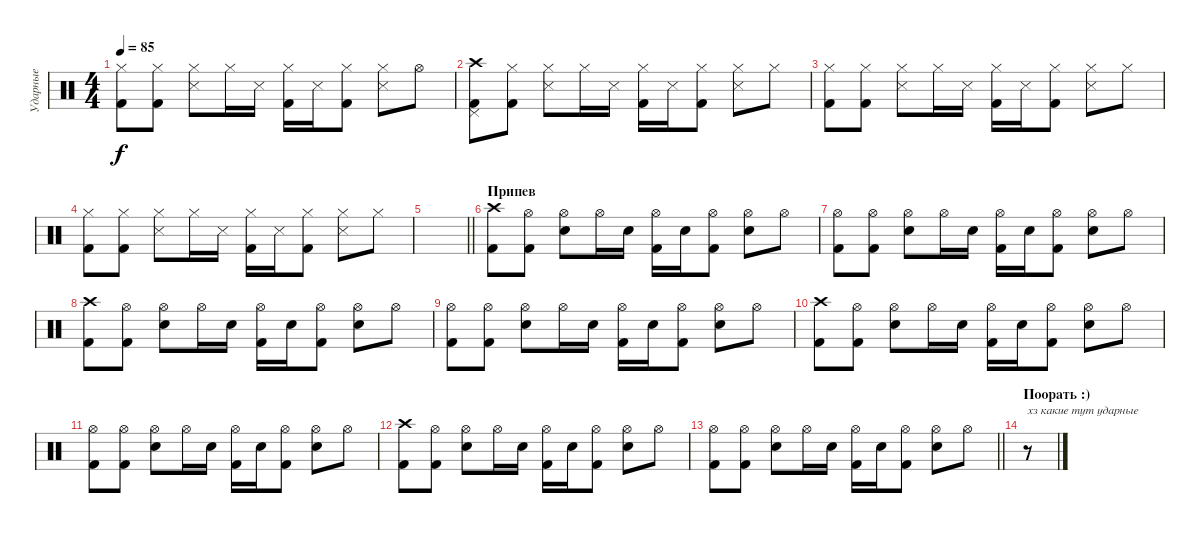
\track ("Ударные" "Ударные") {instrument percussion}
\staff {score}
\articulation defaults
\ts (4 4)
\tempo 85
\clef neutral
\ks c
("Hi-Hat (closed)" "Kick (hit) 2").8{dy f} ("Hi-Hat (closed)" "Kick (hit) 2").8 ("Hi-Hat (closed)" "Snare (side stick) 3").8 "Hi-Hat (closed)".16 "Snare (side stick) 3".16 ("Hi-Hat (closed)" "Kick (hit) 2").16 "Snare (side stick) 3".16 ("Hi-Hat (closed)" "Kick (hit) 2").8 ("Hi-Hat (closed)" "Snare (side stick) 3").8 "Hi-Hat (open)".8 |
("Crash high (hit)" "Pedal Hi-Hat (hit)" "Kick (hit) 2").8 ("Hi-Hat (closed)" "Kick (hit) 2").8 ("Hi-Hat (closed)" "Snare (side stick) 3").8 "Hi-Hat (closed)".16 "Snare (side stick) 3".16 ("Hi-Hat (closed)" "Kick (hit) 2").16 "Snare (side stick) 3".16 ("Hi-Hat (closed)" "Kick (hit) 2").8 ("Hi-Hat (closed)" "Snare (side stick) 3").8 "Hi-Hat (closed)".8 |
("Hi-Hat (closed)" "Kick (hit) 2").8 ("Hi-Hat (closed)" "Kick (hit) 2").8 ("Hi-Hat (closed)" "Snare (side stick) 3").8 "Hi-Hat (closed)".16 "Snare (side stick) 3".16 ("Hi-Hat (closed)" "Kick (hit) 2").16 "Snare (side stick) 3".16 ("Hi-Hat (closed)" "Kick (hit) 2").8 ("Hi-Hat (closed)" "Snare (side stick) 3").8 "Hi-Hat (closed)".8 |
("Hi-Hat (closed)" "Kick (hit) 2").8 ("Hi-Hat (closed)" "Kick (hit) 2").8 ("Hi-Hat (closed)" "Snare (side stick) 3").8 "Hi-Hat (closed)".16 "Snare (side stick) 3".16 ("Hi-Hat (closed)" "Kick (hit) 2").16 "Snare (side stick) 3".16 ("Hi-Hat (closed)" "Kick (hit) 2").8 ("Hi-Hat (closed)" "Snare (side stick) 3").8 "Hi-Hat (closed)".8 |
\barLineRight lightlight
|
\section ("" "Припев")
("Crash high (hit)" "Kick (hit) 2").8 ("Hi-Hat (open)" "Kick (hit) 2").8 ("Hi-Hat (open)" "Electric Snare (hit)").8 "Hi-Hat (open)".16 "Electric Snare (hit)".16 ("Hi-Hat (open)" "Kick (hit) 2").16 "Electric Snare (hit)".16 ("Hi-Hat (open)" "Kick (hit) 2").8 ("Hi-Hat (open)" "Electric Snare (hit)").8 "Hi-Hat (open)".8 |
("Hi-Hat (open)" "Kick (hit) 2").8 ("Hi-Hat (open)" "Kick (hit) 2").8 ("Hi-Hat (open)" "Electric Snare (hit)").8 "Hi-Hat (open)".16 "Electric Snare (hit)".16 ("Hi-Hat (open)" "Kick (hit) 2").16 "Electric Snare (hit)".16 ("Hi-Hat (open)" "Kick (hit) 2").8 ("Hi-Hat (open)" "Electric Snare (hit)").8 "Hi-Hat (open)".8 |
("Crash high (hit)" "Kick (hit) 2").8 ("Hi-Hat (open)" "Kick (hit) 2").8 ("Hi-Hat (open)" "Electric Snare (hit)").8 "Hi-Hat (open)".16 "Electric Snare (hit)".16 ("Hi-Hat (open)" "Kick (hit) 2").16 "Electric Snare (hit)".16 ("Hi-Hat (open)" "Kick (hit) 2").8 ("Hi-Hat (open)" "Electric Snare (hit)").8 "Hi-Hat (open)".8 |
("Hi-Hat (open)" "Kick (hit) 2").8 ("Hi-Hat (open)" "Kick (hit) 2").8 ("Hi-Hat (open)" "Electric Snare (hit)").8 "Hi-Hat (open)".16 "Electric Snare (hit)".16 ("Hi-Hat (open)" "Kick (hit) 2").16 "Electric Snare (hit)".16 ("Hi-Hat (open)" "Kick (hit) 2").8 ("Hi-Hat (open)" "Electric Snare (hit)").8 "Hi-Hat (open)".8 |
("Crash high (hit)" "Kick (hit) 2").8 ("Hi-Hat (open)" "Kick (hit) 2").8 ("Hi-Hat (open)" "Electric Snare (hit)").8 "Hi-Hat (open)".16 "Electric Snare (hit)".16 ("Hi-Hat (open)" "Kick (hit) 2").16 "Electric Snare (hit)".16 ("Hi-Hat (open)" "Kick (hit) 2").8 ("Hi-Hat (open)" "Electric Snare (hit)").8 "Hi-Hat (open)".8 |
("Hi-Hat (open)" "Kick (hit) 2").8 ("Hi-Hat (open)" "Kick (hit) 2").8 ("Hi-Hat (open)" "Electric Snare (hit)").8 "Hi-Hat (open)".16 "Electric Snare (hit)".16 ("Hi-Hat (open)" "Kick (hit) 2").16 "Electric Snare (hit)".16 ("Hi-Hat (open)" "Kick (hit) 2").8 ("Hi-Hat (open)" "Electric Snare (hit)").8 "Hi-Hat (open)".8 |
("Crash high (hit)" "Kick (hit) 2").8 ("Hi-Hat (open)" "Kick (hit) 2").8 ("Hi-Hat (open)" "Electric Snare (hit)").8 "Hi-Hat (open)".16 "Electric Snare (hit)".16 ("Hi-Hat (open)" "Kick (hit) 2").16 "Electric Snare (hit)".16 ("Hi-Hat (open)" "Kick (hit) 2").8 ("Hi-Hat (open)" "Electric Snare (hit)").8 "Hi-Hat (open)".8 |
\barLineRight lightlight
("Hi-Hat (open)" "Kick (hit) 2").8 ("Hi-Hat (open)" "Kick (hit) 2").8 ("Hi-Hat (open)" "Electric Snare (hit)").8 "Hi-Hat (open)".16 "Electric Snare (hit)".16 ("Hi-Hat (open)" "Kick (hit) 2").16 "Electric Snare (hit)".16 ("Hi-Hat (open)" "Kick (hit) 2").8 ("Hi-Hat (open)" "Electric Snare (hit)").8 "Hi-Hat (open)".8 |
\section ("" "Поорать :)")
r.8{txt "хз какие тут ударные"}
